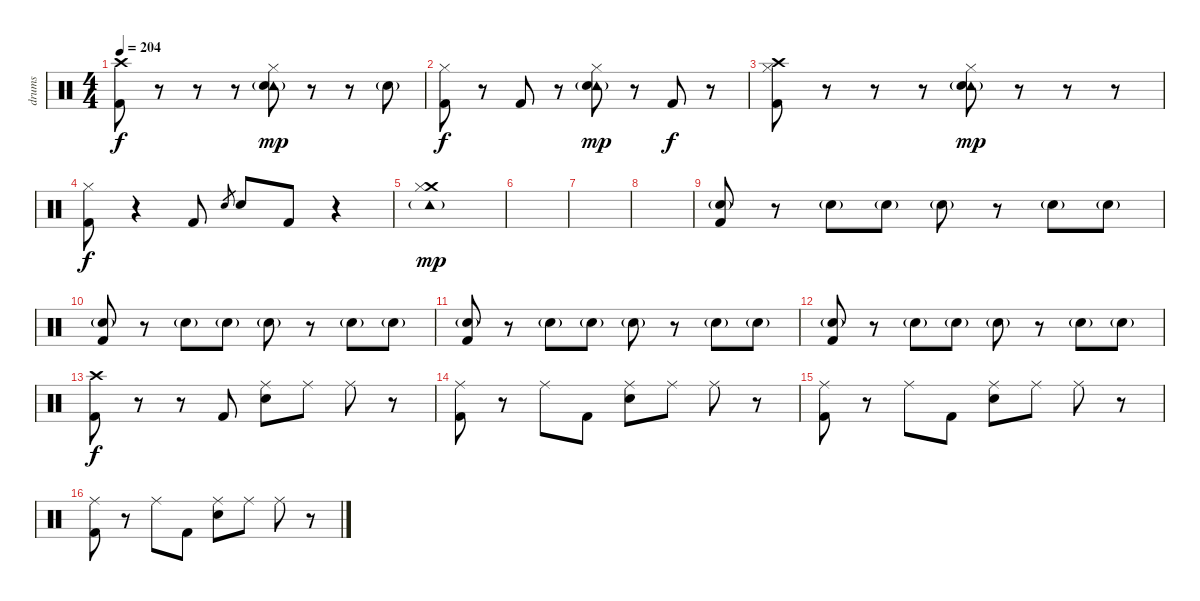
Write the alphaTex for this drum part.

\track ("drums" "drums") {instrument percussion}
\staff {score}
\articulation defaults
\ts (4 4)
\tempo 204
\clef neutral
\ks c
("Crash high (hit)" "Kick (hit) 2").8{dy f} r.8 r.8 r.8 ("Tambourine (hit)"{g} "Hi-Hat (closed)" "Snare (hit) 2").8{dy mp} r.8 r.8 "Snare (hit) 2"{g}.8 |
("Hi-Hat (closed)" "Kick (hit) 2").8{dy f} r.8 "Kick (hit) 2".8 r.8 ("Tambourine (hit)"{g} "Hi-Hat (closed)" "Snare (hit) 2").8{dy mp} r.8 "Kick (hit) 2".8{dy f} r.8 |
("Crash high (hit)" "Hi-Hat (closed)" "Kick (hit) 2").8 r.8 r.8 r.8 ("Tambourine (hit)"{g} "Hi-Hat (closed)" "Snare (hit) 2").8{dy mp} r.8 r.8 r.8 |
("Hi-Hat (closed)" "Kick (hit) 2").8{dy f} r.4 "Kick (hit) 2".8 "Snare (hit) 2".8{gr} "Snare (hit) 2".8 "Kick (hit) 2".8 r.4 |
("Crash medium (hit)" "Tambourine (hit)"{g} "Hi-Hat (closed)").1{dy mp} |
|
|
|
("Snare (hit) 2"{g} "Kick (hit) 2").8 r.8 "Snare (hit) 2"{g}.8 "Snare (hit) 2"{g}.8 "Snare (hit) 2"{g}.8 r.8 "Snare (hit) 2"{g}.8 "Snare (hit) 2"{g}.8 |
("Snare (hit) 2"{g} "Kick (hit) 2").8 r.8 "Snare (hit) 2"{g}.8 "Snare (hit) 2"{g}.8 "Snare (hit) 2"{g}.8 r.8 "Snare (hit) 2"{g}.8 "Snare (hit) 2"{g}.8 |
("Snare (hit) 2"{g} "Kick (hit) 2").8 r.8 "Snare (hit) 2"{g}.8 "Snare (hit) 2"{g}.8 "Snare (hit) 2"{g}.8 r.8 "Snare (hit) 2"{g}.8 "Snare (hit) 2"{g}.8 |
("Snare (hit) 2"{g} "Kick (hit) 2").8 r.8 "Snare (hit) 2"{g}.8 "Snare (hit) 2"{g}.8 "Snare (hit) 2"{g}.8 r.8 "Snare (hit) 2"{g}.8 "Snare (hit) 2"{g}.8 |
("Crash high (hit)" "Kick (hit) 2").8{dy f} r.8 r.8 "Kick (hit) 2".8 ("Ride (middle)" "Snare (hit) 2").8 "Ride (middle)".8 "Ride (middle)".8 r.8 |
("Ride (middle)" "Kick (hit) 2").8 r.8 "Ride (middle)".8 "Kick (hit) 2".8 ("Ride (middle)" "Snare (hit) 2").8 "Ride (middle)".8 "Ride (middle)".8 r.8 |
("Ride (middle)" "Kick (hit) 2").8 r.8 "Ride (middle)".8 "Kick (hit) 2".8 ("Ride (middle)" "Snare (hit) 2").8 "Ride (middle)".8 "Ride (middle)".8 r.8 |
("Ride (middle)" "Kick (hit) 2").8 r.8 "Ride (middle)".8 "Kick (hit) 2".8 ("Ride (middle)" "Snare (hit) 2").8 "Ride (middle)".8 "Ride (middle)".8 r.8
